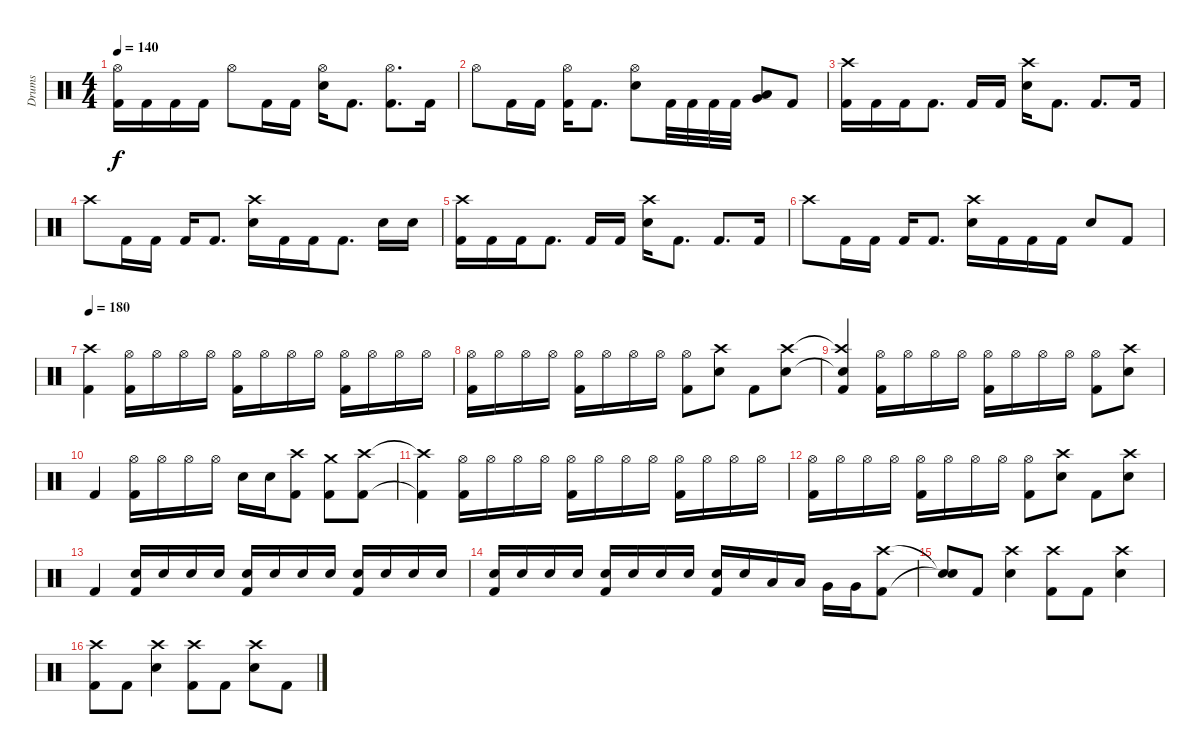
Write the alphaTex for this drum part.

\track ("Drums" "Drums") {instrument percussion}
\staff {score}
\articulation defaults
\ts (4 4)
\tempo 140
\clef neutral
\ks c
("Hi-Hat (open)" "Kick (hit) 2").16{dy f} "Kick (hit) 2".16 "Kick (hit) 2".16 "Kick (hit) 2".16 "Hi-Hat (open)".8 "Kick (hit) 2".16 "Kick (hit) 2".16 ("Hi-Hat (open)" "Electric Snare (hit)").16 "Kick (hit) 2".8{d} ("Hi-Hat (open)" "Kick (hit) 2").8{d} "Kick (hit) 2".16 |
"Hi-Hat (open)".8 "Kick (hit) 2".16 "Kick (hit) 2".16 ("Hi-Hat (open)" "Kick (hit) 2").16 "Kick (hit) 2".8{d} ("Hi-Hat (open)" "Electric Snare (hit)").8 "Kick (hit) 2".32 "Kick (hit) 2".32 "Kick (hit) 2".32 "Kick (hit) 2".32 ("Very Low Tom (hit)" "Low Tom (hit)").8 "Kick (hit) 2".8 |
("Crash high (hit)" "Kick (hit) 2").16 "Kick (hit) 2".16 "Kick (hit) 2".16 "Kick (hit) 2".8{d} "Kick (hit) 2".16 "Kick (hit) 2".16 ("Crash high (hit)" "Electric Snare (hit)").16 "Kick (hit) 2".8{d} "Kick (hit) 2".8{d} "Kick (hit) 2".16 |
"Crash high (hit)".8 "Kick (hit) 2".16 "Kick (hit) 2".16 "Kick (hit) 2".16 "Kick (hit) 2".8{d} ("Crash high (hit)" "Electric Snare (hit)").16 "Kick (hit) 2".16 "Kick (hit) 2".16 "Kick (hit) 2".8{d} "Electric Snare (hit)".16 "Electric Snare (hit)".16 |
("Crash high (hit)" "Kick (hit) 2").16 "Kick (hit) 2".16 "Kick (hit) 2".16 "Kick (hit) 2".8{d} "Kick (hit) 2".16 "Kick (hit) 2".16 ("Crash high (hit)" "Electric Snare (hit)").16 "Kick (hit) 2".8{d} "Kick (hit) 2".8{d} "Kick (hit) 2".16 |
"Crash high (hit)".8 "Kick (hit) 2".16 "Kick (hit) 2".16 "Kick (hit) 2".16 "Kick (hit) 2".8{d} ("Crash high (hit)" "Electric Snare (hit)").16 "Kick (hit) 2".16 "Kick (hit) 2".16 "Kick (hit) 2".16 "Electric Snare (hit)".8 "Kick (hit) 2".8 |
\tempo 180
("Crash high (hit)" "Kick (hit) 2").4 ("Hi-Hat (open)" "Kick (hit) 2").16 "Hi-Hat (open)".16 "Hi-Hat (open)".16 "Hi-Hat (open)".16 ("Hi-Hat (open)" "Kick (hit) 2").16 "Hi-Hat (open)".16 "Hi-Hat (open)".16 "Hi-Hat (open)".16 ("Hi-Hat (open)" "Kick (hit) 2").16 "Hi-Hat (open)".16 "Hi-Hat (open)".16 "Hi-Hat (open)".16 |
("Hi-Hat (open)" "Kick (hit) 2").16 "Hi-Hat (open)".16 "Hi-Hat (open)".16 "Hi-Hat (open)".16 ("Hi-Hat (open)" "Kick (hit) 2").16 "Hi-Hat (open)".16 "Hi-Hat (open)".16 "Hi-Hat (open)".16 ("Hi-Hat (open)" "Kick (hit) 2").8 ("Crash high (hit)" "Electric Snare (hit)").8 "Kick (hit) 2".8 ("Crash high (hit)" "Electric Snare (hit)").8 |
("Crash high (hit)"{t} "Snare (hit)"{t} "Kick (hit) 2").4 ("Hi-Hat (open)" "Kick (hit) 2").16 "Hi-Hat (open)".16 "Hi-Hat (open)".16 "Hi-Hat (open)".16 ("Hi-Hat (open)" "Kick (hit) 2").16 "Hi-Hat (open)".16 "Hi-Hat (open)".16 "Hi-Hat (open)".16 ("Hi-Hat (open)" "Kick (hit) 2").8 ("Crash high (hit)" "Electric Snare (hit)").8 |
"Kick (hit) 2".4 ("Hi-Hat (open)" "Kick (hit) 2").16 "Hi-Hat (open)".16 "Hi-Hat (open)".16 "Hi-Hat (open)".16 "Electric Snare (hit)".16 "Electric Snare (hit)".16 ("Crash high (hit)" "Kick (hit) 2").8 ("Crash medium (hit)" "Kick (hit) 2").8 ("Crash high (hit)" "Kick (hit) 2").8 |
("Crash high (hit)"{t} "Kick (hit) 2"{t}).4 ("Hi-Hat (open)" "Kick (hit) 2").16 "Hi-Hat (open)".16 "Hi-Hat (open)".16 "Hi-Hat (open)".16 ("Hi-Hat (open)" "Kick (hit) 2").16 "Hi-Hat (open)".16 "Hi-Hat (open)".16 "Hi-Hat (open)".16 ("Hi-Hat (open)" "Kick (hit) 2").16 "Hi-Hat (open)".16 "Hi-Hat (open)".16 "Hi-Hat (open)".16 |
("Hi-Hat (open)" "Kick (hit) 2").16 "Hi-Hat (open)".16 "Hi-Hat (open)".16 "Hi-Hat (open)".16 ("Hi-Hat (open)" "Kick (hit) 2").16 "Hi-Hat (open)".16 "Hi-Hat (open)".16 "Hi-Hat (open)".16 ("Hi-Hat (open)" "Kick (hit) 2").8 ("Crash high (hit)" "Electric Snare (hit)").8 "Kick (hit) 2".8 ("Crash high (hit)" "Electric Snare (hit)").8 |
"Kick (hit) 2".4 ("Electric Snare (hit)" "Kick (hit) 2").16 "Electric Snare (hit)".16 "Electric Snare (hit)".16 "Electric Snare (hit)".16 ("Electric Snare (hit)" "Kick (hit) 2").16 "Electric Snare (hit)".16 "Electric Snare (hit)".16 "Electric Snare (hit)".16 ("Electric Snare (hit)" "Kick (hit) 2").16 "Electric Snare (hit)".16 "Electric Snare (hit)".16 "Electric Snare (hit)".16 |
("Electric Snare (hit)" "Kick (hit) 2").16 "Electric Snare (hit)".16 "Electric Snare (hit)".16 "Electric Snare (hit)".16 ("Electric Snare (hit)" "Kick (hit) 2").16 "Electric Snare (hit)".16 "Electric Snare (hit)".16 "Electric Snare (hit)".16 ("Electric Snare (hit)" "Kick (hit) 2").16 "Electric Snare (hit)".16 "Low Tom (hit)".16 "Low Tom (hit)".16 "Very Low Tom (hit)".16 "Very Low Tom (hit)".16 ("Crash high (hit)" "Kick (hit) 2").8 |
("Snare (hit)"{t} "Snare (hit)"{t}).8 "Kick (hit) 2".8 ("Crash high (hit)" "Electric Snare (hit)").4 ("Crash high (hit)" "Kick (hit) 2").8 "Kick (hit) 2".8 ("Crash high (hit)" "Electric Snare (hit)").4 |
("Crash high (hit)" "Kick (hit) 2").8 "Kick (hit) 2".8 ("Crash high (hit)" "Electric Snare (hit)").4 ("Crash high (hit)" "Kick (hit) 2").8 "Kick (hit) 2".8 ("Crash high (hit)" "Electric Snare (hit)").8 "Kick (hit) 2".8
